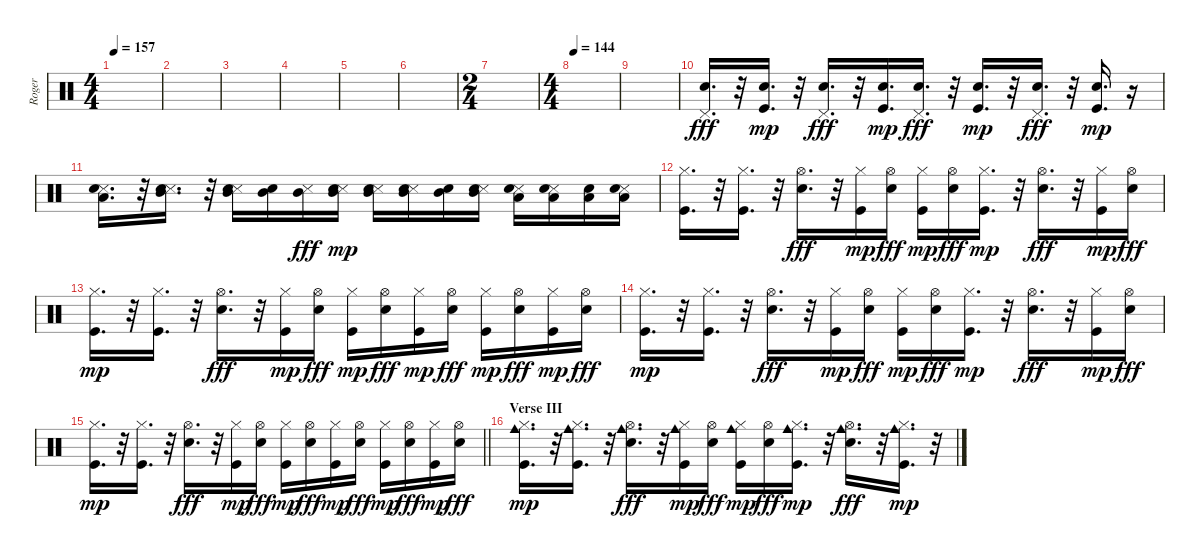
\track ("Roger" "Roger") {instrument percussion}
\staff {score}
\articulation defaults
\ts (4 4)
\tempo 157
\clef neutral
\ks c
|
|
|
|
|
|
\ts (2 4)
|
\ts (4 4)
\tempo 144
|
|
("Snare (hit) 2" "Pedal Hi-Hat (hit)").16{d dy fff} r.32 ("Electric Snare (hit)" "Kick (hit)").16{d dy mp} r.32 ("Snare (hit) 2" "Pedal Hi-Hat (hit)").16{d dy fff} r.32 ("Electric Snare (hit)" "Kick (hit)").16{d dy mp} ("Snare (hit) 2" "Pedal Hi-Hat (hit)").16{d dy fff} r.32 ("Electric Snare (hit)" "Kick (hit)").16{d dy mp} r.32 ("Snare (hit) 2" "Pedal Hi-Hat (hit)").16{d dy fff} r.32 ("Electric Snare (hit)" "Kick (hit)").16{d dy mp} r.16 |
("Low Tom (hit)" "Snare (side stick) 3" "Electric Snare (hit)").16{d} r.32 ("Mid Tom (hit)" "Snare (side stick) 3" "Electric Snare (hit)").16{d} r.32 ("Mid Tom (hit)" "Snare (side stick) 3" "Electric Snare (hit)").16 ("Mid Tom (hit)" "Electric Snare (hit)").16 ("Mid Tom (hit)" "Snare (side stick) 3").16{dy fff} ("Mid Tom (hit)" "Snare (side stick) 3" "Electric Snare (hit)").16{dy mp} ("Mid Tom (hit)" "Snare (side stick) 3" "Electric Snare (hit)").16 ("Mid Tom (hit)" "Snare (side stick) 3" "Electric Snare (hit)").16 ("Mid Tom (hit)" "Electric Snare (hit)").16 ("Mid Tom (hit)" "Snare (side stick) 3" "Electric Snare (hit)").16 ("Low Tom (hit)" "Snare (side stick) 3" "Electric Snare (hit)").16 ("Low Tom (hit)" "Snare (side stick) 3" "Electric Snare (hit)").16 ("Low Tom (hit)" "Electric Snare (hit)").16 ("Low Tom (hit)" "Snare (side stick) 3" "Electric Snare (hit)").16 |
("Hi-Hat (closed)" "Kick (hit)").16{d} r.32 ("Hi-Hat (closed)" "Kick (hit)").16{d} r.32 ("Snare (hit) 2" "Hi-Hat (open)").16{d dy fff} r.32 ("Hi-Hat (closed)" "Kick (hit)").16{dy mp} ("Snare (hit) 2" "Hi-Hat (open)").16{dy fff} ("Hi-Hat (closed)" "Kick (hit)").16{dy mp} ("Snare (hit) 2" "Hi-Hat (open)").16{dy fff} ("Hi-Hat (closed)" "Kick (hit)").16{d dy mp} r.32 ("Snare (hit) 2" "Hi-Hat (open)").16{d dy fff} r.32 ("Hi-Hat (closed)" "Kick (hit)").16{dy mp} ("Hi-Hat (open)" "Snare (hit) 2").16{dy fff} |
("Hi-Hat (closed)" "Kick (hit)").16{d dy mp} r.32 ("Hi-Hat (closed)" "Kick (hit)").16{d} r.32 ("Snare (hit) 2" "Hi-Hat (open)").16{d dy fff} r.32 ("Hi-Hat (closed)" "Kick (hit)").16{dy mp} ("Snare (hit) 2" "Hi-Hat (open)").16{dy fff} ("Hi-Hat (closed)" "Kick (hit)").16{dy mp} ("Snare (hit) 2" "Hi-Hat (open)").16{dy fff} ("Hi-Hat (closed)" "Kick (hit)").16{dy mp} ("Hi-Hat (open)" "Snare (hit) 2").16{dy fff} ("Hi-Hat (closed)" "Kick (hit)").16{dy mp} ("Hi-Hat (open)" "Snare (hit) 2").16{dy fff} ("Hi-Hat (closed)" "Kick (hit)").16{dy mp} ("Hi-Hat (open)" "Snare (hit) 2").16{dy fff} |
("Hi-Hat (closed)" "Kick (hit)").16{d dy mp} r.32 ("Hi-Hat (closed)" "Kick (hit)").16{d} r.32 ("Snare (hit) 2" "Hi-Hat (open)").16{d dy fff} r.32 ("Hi-Hat (closed)" "Kick (hit)").16{dy mp} ("Snare (hit) 2" "Hi-Hat (open)").16{dy fff} ("Hi-Hat (closed)" "Kick (hit)").16{dy mp} ("Snare (hit) 2" "Hi-Hat (open)").16{dy fff} ("Hi-Hat (closed)" "Kick (hit)").16{d dy mp} r.32 ("Snare (hit) 2" "Hi-Hat (open)").16{d dy fff} r.32 ("Hi-Hat (closed)" "Kick (hit)").16{dy mp} ("Hi-Hat (open)" "Snare (hit) 2").16{dy fff} |
\barLineRight lightlight
("Hi-Hat (closed)" "Kick (hit)").16{d dy mp} r.32 ("Hi-Hat (closed)" "Kick (hit)").16{d} r.32 ("Snare (hit) 2" "Hi-Hat (open)").16{d dy fff} r.32 ("Hi-Hat (closed)" "Kick (hit)").16{dy mp} ("Snare (hit) 2" "Hi-Hat (open)").16{dy fff} ("Hi-Hat (closed)" "Kick (hit)").16{dy mp} ("Snare (hit) 2" "Hi-Hat (open)").16{dy fff} ("Hi-Hat (closed)" "Kick (hit)").16{dy mp} ("Hi-Hat (open)" "Snare (hit) 2").16{dy fff} ("Hi-Hat (closed)" "Kick (hit)").16{dy mp} ("Hi-Hat (open)" "Snare (hit) 2").16{dy fff} ("Hi-Hat (closed)" "Kick (hit)").16{dy mp} ("Hi-Hat (open)" "Snare (hit) 2").16{dy fff} |
\section ("" "Verse III")
("Hi-Hat (closed)" "Cowbell medium (hit)" "Kick (hit)").16{d dy mp} r.32 ("Hi-Hat (closed)" "Cowbell medium (hit)" "Kick (hit)").16{d} r.32 ("Snare (hit) 2" "Hi-Hat (open)" "Cowbell medium (hit)").16{d dy fff} r.32 ("Hi-Hat (closed)" "Cowbell medium (hit)" "Kick (hit)").16{dy mp} ("Snare (hit) 2" "Hi-Hat (open)").16{dy fff} ("Hi-Hat (closed)" "Cowbell medium (hit)" "Kick (hit)").16{dy mp} ("Snare (hit) 2" "Hi-Hat (open)").16{dy fff} ("Hi-Hat (closed)" "Cowbell medium (hit)" "Kick (hit)").16{d dy mp} r.32 ("Snare (hit) 2" "Hi-Hat (open)" "Cowbell medium (hit)").16{d dy fff} r.32 ("Hi-Hat (closed)" "Cowbell medium (hit)" "Kick (hit)").16{d dy mp} r.32
